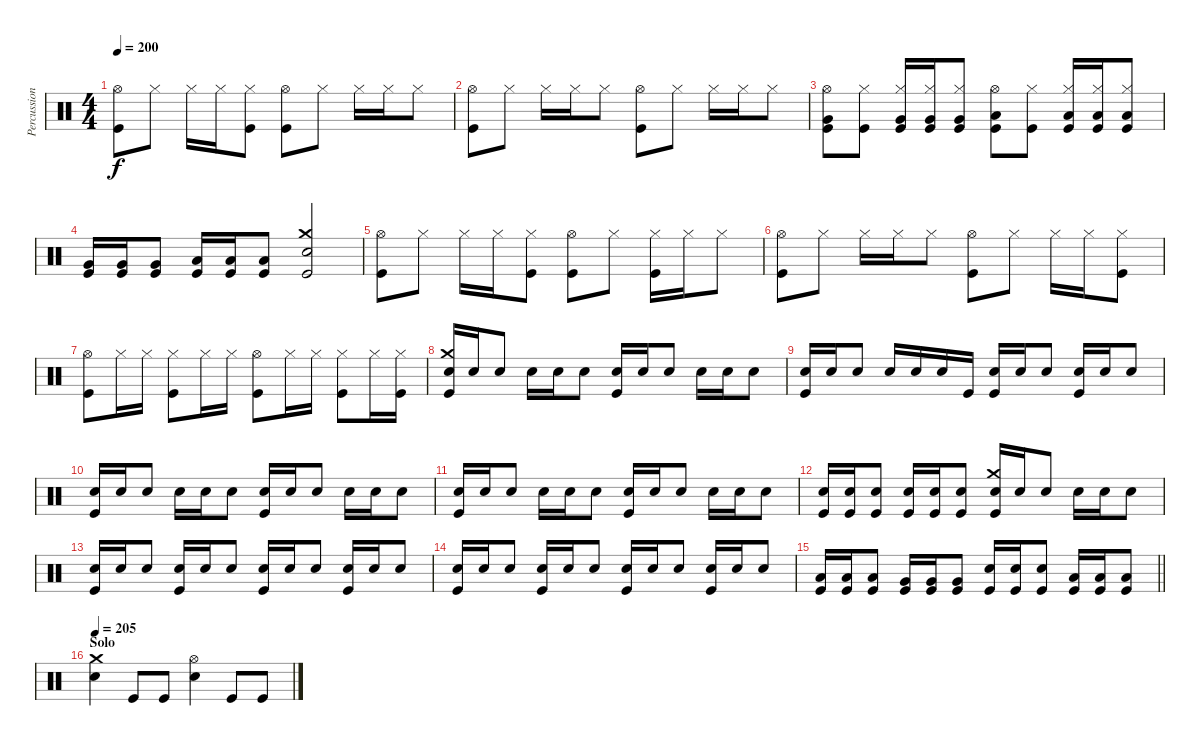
\track ("Percussion" "Percussion") {instrument percussion}
\staff {score}
\articulation defaults
\ts (4 4)
\tempo 200
\clef neutral
\ks c
("Kick (hit)" "Hi-Hat (open)").8{dy f} "Hi-Hat (closed)".8 "Hi-Hat (closed)".16 "Hi-Hat (closed)".16 ("Kick (hit)" "Hi-Hat (closed)").8 ("Kick (hit)" "Hi-Hat (open)").8 "Hi-Hat (closed)".8 "Hi-Hat (closed)".16 "Hi-Hat (closed)".16 "Hi-Hat (closed)".8 |
("Kick (hit)" "Hi-Hat (open)").8 "Hi-Hat (closed)".8 "Hi-Hat (closed)".16 "Hi-Hat (closed)".16 "Hi-Hat (closed)".8 ("Kick (hit)" "Hi-Hat (open)").8 "Hi-Hat (closed)".8 "Hi-Hat (closed)".16 "Hi-Hat (closed)".16 "Hi-Hat (closed)".8 |
("Kick (hit)" "Hi-Hat (open)" "Very Low Tom (hit)").8 ("Kick (hit)" "Hi-Hat (closed)").8 ("Kick (hit)" "Hi-Hat (closed)" "Very Low Tom (hit)").16 ("Kick (hit)" "Hi-Hat (closed)" "Very Low Tom (hit)").16 ("Kick (hit)" "Hi-Hat (closed)" "Very Low Tom (hit)").8 ("Kick (hit)" "Hi-Hat (open)" "Low Floor Tom (hit)").8 ("Kick (hit)" "Hi-Hat (closed)").8 ("Kick (hit)" "Hi-Hat (closed)" "Low Floor Tom (hit)").16 ("Kick (hit)" "Hi-Hat (closed)" "Low Floor Tom (hit)").16 ("Kick (hit)" "Hi-Hat (closed)" "Low Floor Tom (hit)").8 |
("Kick (hit)" "Very Low Tom (hit)").16 ("Kick (hit)" "Very Low Tom (hit)").16 ("Kick (hit)" "Very Low Tom (hit)").8 ("Kick (hit)" "Low Floor Tom (hit)").16 ("Kick (hit)" "Low Floor Tom (hit)").16 ("Kick (hit)" "Low Floor Tom (hit)").8 ("Crash medium (hit)" "Snare (hit) 2" "Kick (hit)").2 |
("Kick (hit)" "Hi-Hat (open)").8 "Hi-Hat (closed)".8 "Hi-Hat (closed)".16 "Hi-Hat (closed)".16 ("Kick (hit)" "Hi-Hat (closed)").8 ("Kick (hit)" "Hi-Hat (open)").8 "Hi-Hat (closed)".8 ("Kick (hit)" "Hi-Hat (closed)").16 "Hi-Hat (closed)".16 "Hi-Hat (closed)".8 |
("Kick (hit)" "Hi-Hat (open)").8 "Hi-Hat (closed)".8 "Hi-Hat (closed)".16 "Hi-Hat (closed)".16 "Hi-Hat (closed)".8 ("Kick (hit)" "Hi-Hat (open)").8 "Hi-Hat (closed)".8 "Hi-Hat (closed)".16 "Hi-Hat (closed)".16 ("Kick (hit)" "Hi-Hat (closed)").8 |
("Kick (hit)" "Hi-Hat (open)").8 "Hi-Hat (closed)".16 "Hi-Hat (closed)".16 ("Kick (hit)" "Hi-Hat (closed)").8 "Hi-Hat (closed)".16 "Hi-Hat (closed)".16 ("Kick (hit)" "Hi-Hat (open)").8 "Hi-Hat (closed)".16 "Hi-Hat (closed)".16 ("Kick (hit)" "Hi-Hat (closed)").8 "Hi-Hat (closed)".16 ("Kick (hit)" "Hi-Hat (closed)").16 |
("Snare (hit) 2" "Crash medium (hit)" "Kick (hit)").16 "Snare (hit) 2".16 "Snare (hit) 2".8 "Snare (hit) 2".16 "Snare (hit) 2".16 "Snare (hit) 2".8 ("Snare (hit) 2" "Kick (hit)").16 "Snare (hit) 2".16 "Snare (hit) 2".8 "Snare (hit) 2".16 "Snare (hit) 2".16 "Snare (hit) 2".8 |
("Snare (hit) 2" "Kick (hit)").16 "Snare (hit) 2".16 "Snare (hit) 2".8 "Snare (hit) 2".16 "Snare (hit) 2".16 "Snare (hit) 2".16 "Kick (hit)".16 ("Snare (hit) 2" "Kick (hit)").16 "Snare (hit) 2".16 "Snare (hit) 2".8 ("Snare (hit) 2" "Kick (hit)").16 "Snare (hit) 2".16 "Snare (hit) 2".8 |
("Snare (hit) 2" "Kick (hit)").16 "Snare (hit) 2".16 "Snare (hit) 2".8 "Snare (hit) 2".16 "Snare (hit) 2".16 "Snare (hit) 2".8 ("Snare (hit) 2" "Kick (hit)").16 "Snare (hit) 2".16 "Snare (hit) 2".8 "Snare (hit) 2".16 "Snare (hit) 2".16 "Snare (hit) 2".8 |
("Snare (hit) 2" "Kick (hit)").16 "Snare (hit) 2".16 "Snare (hit) 2".8 "Snare (hit) 2".16 "Snare (hit) 2".16 "Snare (hit) 2".8 ("Snare (hit) 2" "Kick (hit)").16 "Snare (hit) 2".16 "Snare (hit) 2".8 "Snare (hit) 2".16 "Snare (hit) 2".16 "Snare (hit) 2".8 |
("Snare (hit) 2" "Kick (hit)").16 ("Snare (hit) 2" "Kick (hit)").16 ("Snare (hit) 2" "Kick (hit)").8 ("Snare (hit) 2" "Kick (hit)").16 ("Snare (hit) 2" "Kick (hit)").16 ("Snare (hit) 2" "Kick (hit)").8 ("Snare (hit) 2" "Crash medium (hit)" "Kick (hit)").16 "Snare (hit) 2".16 "Snare (hit) 2".8 "Snare (hit) 2".16 "Snare (hit) 2".16 "Snare (hit) 2".8 |
("Snare (hit) 2" "Kick (hit)").16 "Snare (hit) 2".16 "Snare (hit) 2".8 ("Snare (hit) 2" "Kick (hit)").16 "Snare (hit) 2".16 "Snare (hit) 2".8 ("Snare (hit) 2" "Kick (hit)").16 "Snare (hit) 2".16 "Snare (hit) 2".8 ("Snare (hit) 2" "Kick (hit)").16 "Snare (hit) 2".16 "Snare (hit) 2".8 |
("Snare (hit) 2" "Kick (hit)").16 "Snare (hit) 2".16 "Snare (hit) 2".8 ("Snare (hit) 2" "Kick (hit)").16 "Snare (hit) 2".16 "Snare (hit) 2".8 ("Snare (hit) 2" "Kick (hit)").16 "Snare (hit) 2".16 "Snare (hit) 2".8 ("Snare (hit) 2" "Kick (hit)").16 "Snare (hit) 2".16 "Snare (hit) 2".8 |
\barLineRight lightlight
("Low Tom (hit)" "Kick (hit)").16 ("Low Tom (hit)" "Kick (hit)").16 ("Low Tom (hit)" "Kick (hit)").8 ("Very Low Tom (hit)" "Kick (hit)").16 ("Very Low Tom (hit)" "Kick (hit)").16 ("Very Low Tom (hit)" "Kick (hit)").8 ("Snare (hit) 2" "Kick (hit)").16 ("Snare (hit) 2" "Kick (hit)").16 ("Snare (hit) 2" "Kick (hit)").8 ("Low Floor Tom (hit)" "Kick (hit)").16 ("Low Floor Tom (hit)" "Kick (hit)").16 ("Low Floor Tom (hit)" "Kick (hit)").8 |
\section ("" "Solo")
\tempo 205
("Snare (hit) 2" "Crash medium (hit)").4 "Kick (hit)".8 "Kick (hit)".8 ("Snare (hit) 2" "Hi-Hat (open)").4 "Kick (hit)".8 "Kick (hit)".8
